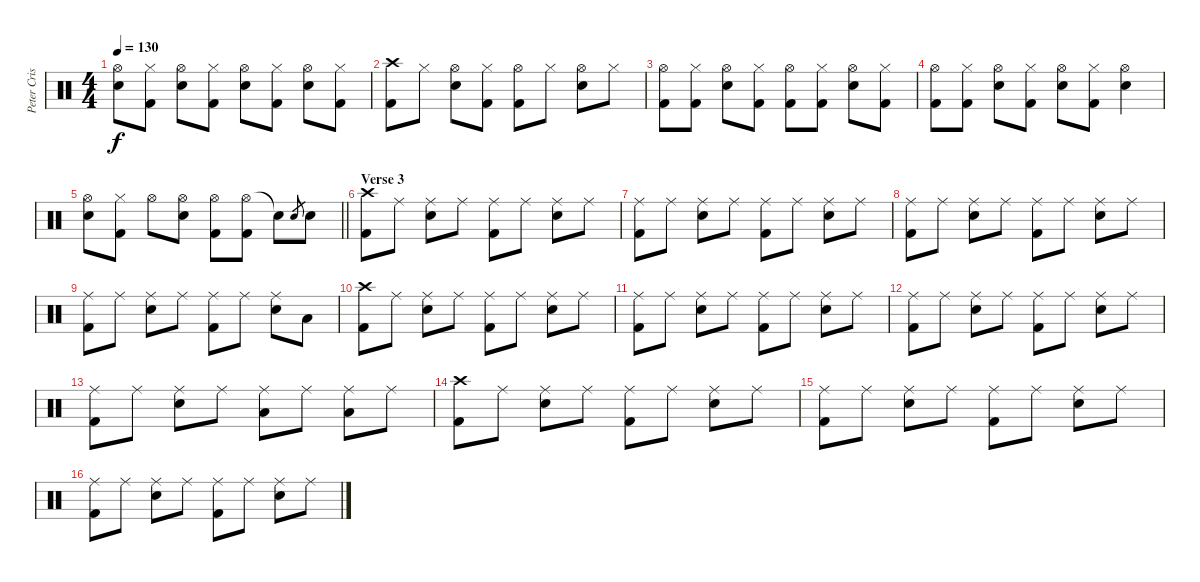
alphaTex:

\track ("Peter Criss" "Peter Cris") {instrument percussion}
\staff {score}
\articulation defaults
\ts (4 4)
\tempo 130
\clef neutral
\ks c
("Hi-Hat (open)" "Snare (hit) 2").8{dy f} ("Hi-Hat (closed)" "Kick (hit) 2").8 ("Hi-Hat (open)" "Snare (hit) 2").8 ("Hi-Hat (closed)" "Kick (hit) 2").8 ("Hi-Hat (open)" "Snare (hit) 2").8 ("Hi-Hat (closed)" "Kick (hit) 2").8 ("Hi-Hat (open)" "Snare (hit) 2").8 ("Hi-Hat (closed)" "Kick (hit) 2").8 |
("Crash high (hit)" "Kick (hit) 2").8 "Hi-Hat (closed)".8 ("Hi-Hat (open)" "Snare (hit) 2").8 ("Hi-Hat (closed)" "Kick (hit) 2").8 ("Hi-Hat (open)" "Kick (hit) 2").8 "Hi-Hat (closed)".8 ("Hi-Hat (open)" "Snare (hit) 2").8 "Hi-Hat (closed)".8 |
("Hi-Hat (open)" "Kick (hit) 2").8 ("Hi-Hat (closed)" "Kick (hit) 2").8 ("Hi-Hat (open)" "Snare (hit) 2").8 ("Hi-Hat (closed)" "Kick (hit) 2").8 ("Hi-Hat (open)" "Kick (hit) 2").8 ("Hi-Hat (closed)" "Kick (hit) 2").8 ("Hi-Hat (open)" "Snare (hit) 2").8 ("Hi-Hat (closed)" "Kick (hit) 2").8 |
("Hi-Hat (open)" "Kick (hit) 2").8 ("Hi-Hat (closed)" "Kick (hit) 2").8 ("Hi-Hat (open)" "Snare (hit) 2").8 ("Hi-Hat (closed)" "Kick (hit) 2").8 ("Hi-Hat (open)" "Snare (hit) 2").8 ("Hi-Hat (closed)" "Kick (hit) 2").8 ("Hi-Hat (open)" "Snare (hit) 2").4 |
\barLineRight lightlight
("Hi-Hat (open)" "Snare (hit) 2").8 ("Hi-Hat (closed)" "Kick (hit) 2").8 "Hi-Hat (open)".8 ("Hi-Hat (open)" "Snare (hit) 2").8 ("Hi-Hat (open)" "Kick (hit) 2").8 ("Hi-Hat (open)" "Kick (hit) 2").8 "Snare (hit)"{t}.8 "Snare (hit) 2".8{gr} "Snare (hit) 2".8 |
\section ("" "Verse 3")
("Crash high (hit)" "Kick (hit) 2").8 "Ride (middle)".8 ("Ride (middle)" "Snare (hit) 2").8 "Ride (middle)".8 ("Ride (middle)" "Kick (hit) 2").8 "Ride (middle)".8 ("Ride (middle)" "Snare (hit) 2").8 "Ride (middle)".8 |
("Ride (middle)" "Kick (hit) 2").8 "Ride (middle)".8 ("Ride (middle)" "Snare (hit) 2").8 "Ride (middle)".8 ("Ride (middle)" "Kick (hit) 2").8 "Ride (middle)".8 ("Ride (middle)" "Snare (hit) 2").8 "Ride (middle)".8 |
("Ride (middle)" "Kick (hit) 2").8 "Ride (middle)".8 ("Ride (middle)" "Snare (hit) 2").8 "Ride (middle)".8 ("Ride (middle)" "Kick (hit) 2").8 "Ride (middle)".8 ("Ride (middle)" "Snare (hit) 2").8 "Ride (middle)".8 |
("Ride (middle)" "Kick (hit) 2").8 "Ride (middle)".8 ("Ride (middle)" "Snare (hit) 2").8 "Ride (middle)".8 ("Ride (middle)" "Kick (hit) 2").8 "Ride (middle)".8 ("Ride (middle)" "Snare (hit) 2").8 "Low Tom (hit)".8 |
("Crash high (hit)" "Kick (hit) 2").8 "Ride (middle)".8 ("Ride (middle)" "Snare (hit) 2").8 "Ride (middle)".8 ("Ride (middle)" "Kick (hit) 2").8 "Ride (middle)".8 ("Ride (middle)" "Snare (hit) 2").8 "Ride (middle)".8 |
("Ride (middle)" "Kick (hit) 2").8 "Ride (middle)".8 ("Ride (middle)" "Snare (hit) 2").8 "Ride (middle)".8 ("Ride (middle)" "Kick (hit) 2").8 "Ride (middle)".8 ("Ride (middle)" "Snare (hit) 2").8 "Ride (middle)".8 |
("Ride (middle)" "Kick (hit) 2").8 "Ride (middle)".8 ("Ride (middle)" "Snare (hit) 2").8 "Ride (middle)".8 ("Ride (middle)" "Kick (hit) 2").8 "Ride (middle)".8 ("Ride (middle)" "Snare (hit) 2").8 "Ride (middle)".8 |
("Ride (middle)" "Kick (hit) 2").8 "Ride (middle)".8 ("Ride (middle)" "Snare (hit) 2").8 "Ride (middle)".8 ("Ride (middle)" "Low Tom (hit)").8 "Ride (middle)".8 ("Ride (middle)" "Low Tom (hit)").8 "Ride (middle)".8 |
("Crash high (hit)" "Kick (hit) 2").8 "Ride (middle)".8 ("Ride (middle)" "Snare (hit) 2").8 "Ride (middle)".8 ("Ride (middle)" "Kick (hit) 2").8 "Ride (middle)".8 ("Ride (middle)" "Snare (hit) 2").8 "Ride (middle)".8 |
("Ride (middle)" "Kick (hit) 2").8 "Ride (middle)".8 ("Ride (middle)" "Snare (hit) 2").8 "Ride (middle)".8 ("Ride (middle)" "Kick (hit) 2").8 "Ride (middle)".8 ("Ride (middle)" "Snare (hit) 2").8 "Ride (middle)".8 |
("Ride (middle)" "Kick (hit) 2").8 "Ride (middle)".8 ("Ride (middle)" "Snare (hit) 2").8 "Ride (middle)".8 ("Ride (middle)" "Kick (hit) 2").8 "Ride (middle)".8 ("Ride (middle)" "Snare (hit) 2").8 "Ride (middle)".8
